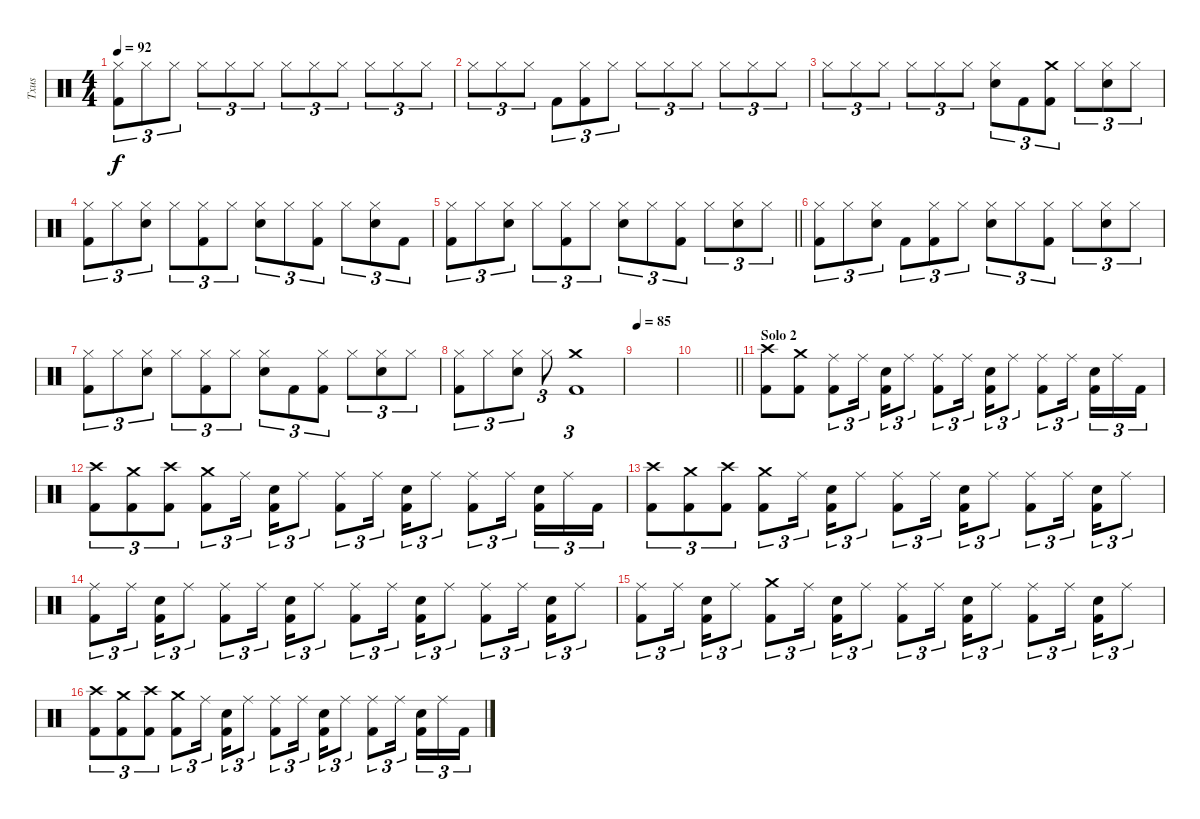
\track ("Txus" "Txus") {instrument percussion}
\staff {score}
\articulation defaults
\ts (4 4)
\tempo 92
\clef neutral
\ks c
("Hi-Hat (closed)" "Kick (hit) 2").8{tu (3 2) dy f} "Hi-Hat (closed)".8{tu (3 2)} "Hi-Hat (closed)".8{tu (3 2)} "Hi-Hat (closed)".8{tu (3 2)} "Hi-Hat (closed)".8{tu (3 2)} "Hi-Hat (closed)".8{tu (3 2)} "Hi-Hat (closed)".8{tu (3 2)} "Hi-Hat (closed)".8{tu (3 2)} "Hi-Hat (closed)".8{tu (3 2)} "Hi-Hat (closed)".8{tu (3 2)} "Hi-Hat (closed)".8{tu (3 2)} "Hi-Hat (closed)".8{tu (3 2)} |
"Hi-Hat (closed)".8{tu (3 2)} "Hi-Hat (closed)".8{tu (3 2)} "Hi-Hat (closed)".8{tu (3 2)} "Kick (hit) 2".8{tu (3 2)} ("Hi-Hat (closed)" "Kick (hit) 2").8{tu (3 2)} "Hi-Hat (closed)".8{tu (3 2)} "Hi-Hat (closed)".8{tu (3 2)} "Hi-Hat (closed)".8{tu (3 2)} "Hi-Hat (closed)".8{tu (3 2)} "Hi-Hat (closed)".8{tu (3 2)} "Hi-Hat (closed)".8{tu (3 2)} "Hi-Hat (closed)".8{tu (3 2)} |
"Hi-Hat (closed)".8{tu (3 2)} "Hi-Hat (closed)".8{tu (3 2)} "Hi-Hat (closed)".8{tu (3 2)} "Hi-Hat (closed)".8{tu (3 2)} "Hi-Hat (closed)".8{tu (3 2)} "Hi-Hat (closed)".8{tu (3 2)} ("Hi-Hat (closed)" "Electric Snare (hit)").8{tu (3 2)} "Kick (hit) 2".8{tu (3 2)} ("Crash medium (hit)" "Kick (hit) 2").8{tu (3 2)} "Hi-Hat (closed)".8{tu (3 2)} ("Hi-Hat (closed)" "Electric Snare (hit)").8{tu (3 2)} "Hi-Hat (closed)".8{tu (3 2)} |
("Hi-Hat (closed)" "Kick (hit) 2").8{tu (3 2)} "Hi-Hat (closed)".8{tu (3 2)} ("Hi-Hat (closed)" "Electric Snare (hit)").8{tu (3 2)} "Hi-Hat (closed)".8{tu (3 2)} ("Hi-Hat (closed)" "Kick (hit) 2").8{tu (3 2)} "Hi-Hat (closed)".8{tu (3 2)} ("Hi-Hat (closed)" "Electric Snare (hit)").8{tu (3 2)} "Hi-Hat (closed)".8{tu (3 2)} ("Hi-Hat (closed)" "Kick (hit) 2").8{tu (3 2)} "Hi-Hat (closed)".8{tu (3 2)} ("Hi-Hat (closed)" "Electric Snare (hit)").8{tu (3 2)} "Kick (hit) 2".8{tu (3 2)} |
\barLineRight lightlight
("Hi-Hat (closed)" "Kick (hit) 2").8{tu (3 2)} "Hi-Hat (closed)".8{tu (3 2)} ("Hi-Hat (closed)" "Electric Snare (hit)").8{tu (3 2)} "Hi-Hat (closed)".8{tu (3 2)} ("Hi-Hat (closed)" "Kick (hit) 2").8{tu (3 2)} "Hi-Hat (closed)".8{tu (3 2)} ("Hi-Hat (closed)" "Electric Snare (hit)").8{tu (3 2)} "Hi-Hat (closed)".8{tu (3 2)} ("Hi-Hat (closed)" "Kick (hit) 2").8{tu (3 2)} "Hi-Hat (closed)".8{tu (3 2)} ("Hi-Hat (closed)" "Electric Snare (hit)").8{tu (3 2)} "Hi-Hat (closed)".8{tu (3 2)} |
("Hi-Hat (closed)" "Kick (hit) 2").8{tu (3 2)} "Hi-Hat (closed)".8{tu (3 2)} ("Hi-Hat (closed)" "Electric Snare (hit)").8{tu (3 2)} "Kick (hit) 2".8{tu (3 2)} ("Hi-Hat (closed)" "Kick (hit) 2").8{tu (3 2)} "Hi-Hat (closed)".8{tu (3 2)} ("Hi-Hat (closed)" "Electric Snare (hit)").8{tu (3 2)} "Hi-Hat (closed)".8{tu (3 2)} ("Hi-Hat (closed)" "Kick (hit) 2").8{tu (3 2)} "Hi-Hat (closed)".8{tu (3 2)} ("Hi-Hat (closed)" "Electric Snare (hit)").8{tu (3 2)} "Hi-Hat (closed)".8{tu (3 2)} |
("Hi-Hat (closed)" "Kick (hit) 2").8{tu (3 2)} "Hi-Hat (closed)".8{tu (3 2)} ("Hi-Hat (closed)" "Electric Snare (hit)").8{tu (3 2)} "Hi-Hat (closed)".8{tu (3 2)} ("Hi-Hat (closed)" "Kick (hit) 2").8{tu (3 2)} "Hi-Hat (closed)".8{tu (3 2)} ("Hi-Hat (closed)" "Electric Snare (hit)").8{tu (3 2)} "Kick (hit) 2".8{tu (3 2)} ("Hi-Hat (closed)" "Kick (hit) 2").8{tu (3 2)} "Hi-Hat (closed)".8{tu (3 2)} ("Hi-Hat (closed)" "Electric Snare (hit)").8{tu (3 2)} "Hi-Hat (closed)".8{tu (3 2)} |
("Hi-Hat (closed)" "Kick (hit) 2").8{tu (3 2)} "Hi-Hat (closed)".8{tu (3 2)} ("Hi-Hat (closed)" "Electric Snare (hit)").8{tu (3 2)} "Hi-Hat (closed)".8{tu (3 2)} ("Crash medium (hit)" "Kick (hit) 2").1{tu (3 2)} |
\tempo 85
|
\barLineRight lightlight
|
\section ("" "Solo 2")
("Crash high (hit)" "Kick (hit) 2").8 ("Crash medium (hit)" "Kick (hit) 2").8 ("Ride (middle)" "Kick (hit) 2").8{tu (3 2)} "Ride (middle)".16{tu (3 2) beam splitsecondary} ("Electric Snare (hit)" "Kick (hit) 2").16{tu (3 2)} "Ride (middle)".8{tu (3 2)} ("Ride (middle)" "Kick (hit) 2").8{tu (3 2)} "Ride (middle)".16{tu (3 2) beam splitsecondary} ("Electric Snare (hit)" "Kick (hit) 2").16{tu (3 2)} "Ride (middle)".8{tu (3 2)} ("Ride (middle)" "Kick (hit) 2").8{tu (3 2)} "Ride (middle)".16{tu (3 2) beam splitsecondary} ("Electric Snare (hit)" "Kick (hit) 2").16{tu (3 2)} "Ride (middle)".16{tu (3 2)} "Kick (hit) 2".16{tu (3 2)} |
("Crash high (hit)" "Kick (hit) 2").8{tu (3 2)} ("Crash medium (hit)" "Kick (hit) 2").8{tu (3 2)} ("Crash high (hit)" "Kick (hit) 2").8{tu (3 2)} ("Crash medium (hit)" "Kick (hit) 2").8{tu (3 2)} "Ride (middle)".16{tu (3 2) beam splitsecondary} ("Electric Snare (hit)" "Kick (hit) 2").16{tu (3 2)} "Ride (middle)".8{tu (3 2)} ("Ride (middle)" "Kick (hit) 2").8{tu (3 2)} "Ride (middle)".16{tu (3 2) beam splitsecondary} ("Electric Snare (hit)" "Kick (hit) 2").16{tu (3 2)} "Ride (middle)".8{tu (3 2)} ("Ride (middle)" "Kick (hit) 2").8{tu (3 2)} "Ride (middle)".16{tu (3 2) beam splitsecondary} ("Electric Snare (hit)" "Kick (hit) 2").16{tu (3 2)} "Ride (middle)".16{tu (3 2)} "Kick (hit) 2".16{tu (3 2)} |
("Crash high (hit)" "Kick (hit) 2").8{tu (3 2)} ("Crash medium (hit)" "Kick (hit) 2").8{tu (3 2)} ("Crash high (hit)" "Kick (hit) 2").8{tu (3 2)} ("Crash medium (hit)" "Kick (hit) 2").8{tu (3 2)} "Ride (middle)".16{tu (3 2) beam splitsecondary} ("Electric Snare (hit)" "Kick (hit) 2").16{tu (3 2)} "Ride (middle)".8{tu (3 2)} ("Ride (middle)" "Kick (hit) 2").8{tu (3 2)} "Ride (middle)".16{tu (3 2) beam splitsecondary} ("Electric Snare (hit)" "Kick (hit) 2").16{tu (3 2)} "Ride (middle)".8{tu (3 2)} ("Ride (middle)" "Kick (hit) 2").8{tu (3 2)} "Ride (middle)".16{tu (3 2) beam splitsecondary} ("Electric Snare (hit)" "Kick (hit) 2").16{tu (3 2)} "Ride (middle)".8{tu (3 2)} |
("Ride (middle)" "Kick (hit) 2").8{tu (3 2)} "Ride (middle)".16{tu (3 2) beam splitsecondary} ("Electric Snare (hit)" "Kick (hit) 2").16{tu (3 2)} "Ride (middle)".8{tu (3 2)} ("Ride (middle)" "Kick (hit) 2").8{tu (3 2)} "Ride (middle)".16{tu (3 2) beam splitsecondary} ("Electric Snare (hit)" "Kick (hit) 2").16{tu (3 2)} "Ride (middle)".8{tu (3 2)} ("Ride (middle)" "Kick (hit) 2").8{tu (3 2)} "Ride (middle)".16{tu (3 2) beam splitsecondary} ("Electric Snare (hit)" "Kick (hit) 2").16{tu (3 2)} "Ride (middle)".8{tu (3 2)} ("Ride (middle)" "Kick (hit) 2").8{tu (3 2)} "Ride (middle)".16{tu (3 2) beam splitsecondary} ("Electric Snare (hit)" "Kick (hit) 2").16{tu (3 2)} "Ride (middle)".8{tu (3 2)} |
("Ride (middle)" "Kick (hit) 2").8{tu (3 2)} "Ride (middle)".16{tu (3 2) beam splitsecondary} ("Electric Snare (hit)" "Kick (hit) 2").16{tu (3 2)} "Ride (middle)".8{tu (3 2)} ("Crash medium (hit)" "Kick (hit) 2").8{tu (3 2)} "Ride (middle)".16{tu (3 2) beam splitsecondary} ("Electric Snare (hit)" "Kick (hit) 2").16{tu (3 2)} "Ride (middle)".8{tu (3 2)} ("Ride (middle)" "Kick (hit) 2").8{tu (3 2)} "Ride (middle)".16{tu (3 2) beam splitsecondary} ("Electric Snare (hit)" "Kick (hit) 2").16{tu (3 2)} "Ride (middle)".8{tu (3 2)} ("Ride (middle)" "Kick (hit) 2").8{tu (3 2)} "Ride (middle)".16{tu (3 2) beam splitsecondary} ("Electric Snare (hit)" "Kick (hit) 2").16{tu (3 2)} "Ride (middle)".8{tu (3 2)} |
("Crash high (hit)" "Kick (hit) 2").8{tu (3 2)} ("Crash medium (hit)" "Kick (hit) 2").8{tu (3 2)} ("Crash high (hit)" "Kick (hit) 2").8{tu (3 2)} ("Crash medium (hit)" "Kick (hit) 2").8{tu (3 2)} "Ride (middle)".16{tu (3 2) beam splitsecondary} ("Electric Snare (hit)" "Kick (hit) 2").16{tu (3 2)} "Ride (middle)".8{tu (3 2)} ("Ride (middle)" "Kick (hit) 2").8{tu (3 2)} "Ride (middle)".16{tu (3 2) beam splitsecondary} ("Electric Snare (hit)" "Kick (hit) 2").16{tu (3 2)} "Ride (middle)".8{tu (3 2)} ("Ride (middle)" "Kick (hit) 2").8{tu (3 2)} "Ride (middle)".16{tu (3 2) beam splitsecondary} ("Electric Snare (hit)" "Kick (hit) 2").16{tu (3 2)} "Ride (middle)".16{tu (3 2)} "Kick (hit) 2".16{tu (3 2)}
